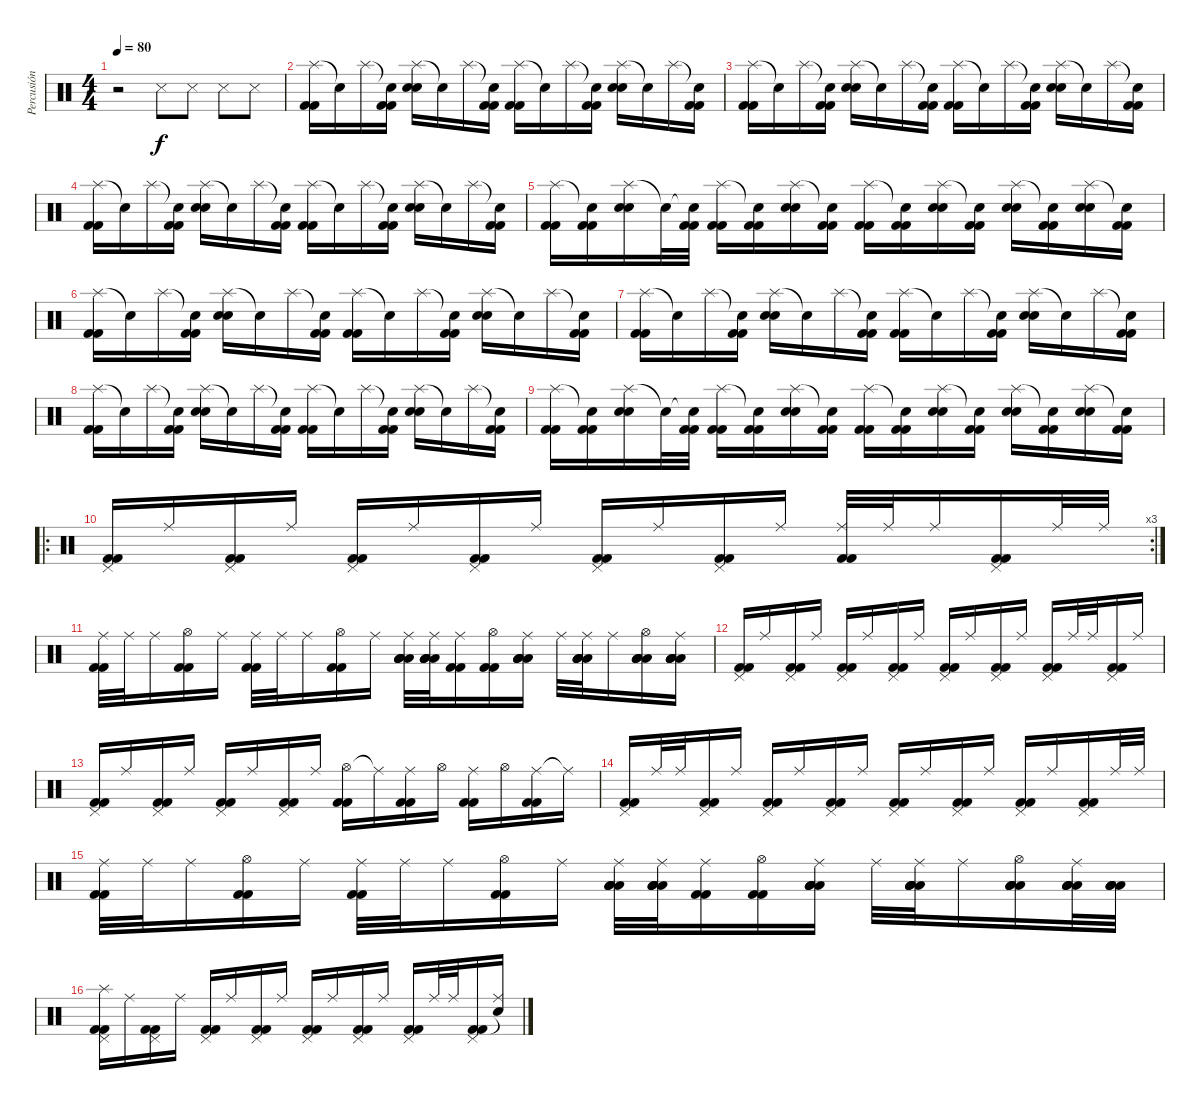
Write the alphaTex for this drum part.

\track ("Percusión" "Percusión") {instrument percussion}
\staff {score}
\articulation defaults
\ts (4 4)
\tempo 80
\clef neutral
\ks c
r.2{dy f} "Snare (side stick) 3".8 "Snare (side stick) 3".8 "Snare (side stick) 3".8 "Snare (side stick) 3".8 |
("Splash (hit)" "Kick (hit) 2" "Kick (hit) 2").16 "Snare (hit)"{t}.16 "Splash (hit)".16 ("Snare (hit)"{t} "Kick (hit) 2" "Kick (hit) 2").16 ("Splash (hit)" "Electric Snare (hit)" "Electric Snare (hit)").16 "Snare (hit)"{t}.16 "Splash (hit)".16 ("Snare (hit)"{t} "Kick (hit) 2" "Kick (hit) 2").16 ("Splash (hit)" "Kick (hit) 2" "Kick (hit) 2").16 "Snare (hit)"{t}.16 "Splash (hit)".16 ("Snare (hit)"{t} "Kick (hit) 2" "Kick (hit) 2").16 ("Splash (hit)" "Electric Snare (hit)" "Electric Snare (hit)").16 "Snare (hit)"{t}.16 "Splash (hit)".16 ("Snare (hit)"{t} "Kick (hit) 2" "Kick (hit) 2").16 |
("Splash (hit)" "Kick (hit) 2" "Kick (hit) 2").16 "Snare (hit)"{t}.16 "Splash (hit)".16 ("Snare (hit)"{t} "Kick (hit) 2" "Kick (hit) 2").16 ("Splash (hit)" "Electric Snare (hit)" "Electric Snare (hit)").16 "Snare (hit)"{t}.16 "Splash (hit)".16 ("Snare (hit)"{t} "Kick (hit) 2" "Kick (hit) 2").16 ("Splash (hit)" "Kick (hit) 2" "Kick (hit) 2").16 "Snare (hit)"{t}.16 "Splash (hit)".16 ("Snare (hit)"{t} "Kick (hit) 2" "Kick (hit) 2").16 ("Splash (hit)" "Electric Snare (hit)" "Electric Snare (hit)").16 "Snare (hit)"{t}.16 "Splash (hit)".16 ("Snare (hit)"{t} "Kick (hit) 2" "Kick (hit) 2").16 |
("Splash (hit)" "Kick (hit) 2" "Kick (hit) 2").16 "Snare (hit)"{t}.16 "Splash (hit)".16 ("Snare (hit)"{t} "Kick (hit) 2" "Kick (hit) 2").16 ("Splash (hit)" "Electric Snare (hit)" "Electric Snare (hit)").16 "Snare (hit)"{t}.16 "Splash (hit)".16 ("Snare (hit)"{t} "Kick (hit) 2" "Kick (hit) 2").16 ("Splash (hit)" "Kick (hit) 2" "Kick (hit) 2").16 "Snare (hit)"{t}.16 "Splash (hit)".16 ("Snare (hit)"{t} "Kick (hit) 2" "Kick (hit) 2").16 ("Splash (hit)" "Electric Snare (hit)" "Electric Snare (hit)").16 "Snare (hit)"{t}.16 "Splash (hit)".16 ("Snare (hit)"{t} "Kick (hit) 2" "Kick (hit) 2").16 |
("Splash (hit)" "Kick (hit) 2" "Kick (hit) 2").16 ("Snare (hit)"{t} "Kick (hit) 2" "Kick (hit) 2").16 ("Splash (hit)" "Electric Snare (hit)" "Electric Snare (hit)").16 "Snare (hit)"{t}.32 ("Snare (hit)"{t} "Kick (hit) 2" "Kick (hit) 2").32 ("Splash (hit)" "Kick (hit) 2" "Kick (hit) 2").16 ("Snare (hit)"{t} "Kick (hit) 2" "Kick (hit) 2").16 ("Splash (hit)" "Electric Snare (hit)" "Electric Snare (hit)").16 ("Snare (hit)"{t} "Kick (hit) 2" "Kick (hit) 2").16 ("Splash (hit)" "Kick (hit) 2" "Kick (hit) 2").16 ("Snare (hit)"{t} "Kick (hit) 2" "Kick (hit) 2").16 ("Splash (hit)" "Electric Snare (hit)" "Electric Snare (hit)").16 ("Snare (hit)"{t} "Kick (hit) 2" "Kick (hit) 2").16 ("Splash (hit)" "Electric Snare (hit)" "Electric Snare (hit)").16 ("Snare (hit)"{t} "Kick (hit) 2" "Kick (hit) 2").16 ("Splash (hit)" "Electric Snare (hit)" "Electric Snare (hit)").16 ("Snare (hit)"{t} "Kick (hit) 2" "Kick (hit) 2").16 |
("Splash (hit)" "Kick (hit) 2" "Kick (hit) 2").16 "Snare (hit)"{t}.16 "Splash (hit)".16 ("Snare (hit)"{t} "Kick (hit) 2" "Kick (hit) 2").16 ("Splash (hit)" "Electric Snare (hit)" "Electric Snare (hit)").16 "Snare (hit)"{t}.16 "Splash (hit)".16 ("Snare (hit)"{t} "Kick (hit) 2" "Kick (hit) 2").16 ("Splash (hit)" "Kick (hit) 2" "Kick (hit) 2").16 "Snare (hit)"{t}.16 "Splash (hit)".16 ("Snare (hit)"{t} "Kick (hit) 2" "Kick (hit) 2").16 ("Splash (hit)" "Electric Snare (hit)" "Electric Snare (hit)").16 "Snare (hit)"{t}.16 "Splash (hit)".16 ("Snare (hit)"{t} "Kick (hit) 2" "Kick (hit) 2").16 |
("Splash (hit)" "Kick (hit) 2" "Kick (hit) 2").16 "Snare (hit)"{t}.16 "Splash (hit)".16 ("Snare (hit)"{t} "Kick (hit) 2" "Kick (hit) 2").16 ("Splash (hit)" "Electric Snare (hit)" "Electric Snare (hit)").16 "Snare (hit)"{t}.16 "Splash (hit)".16 ("Snare (hit)"{t} "Kick (hit) 2" "Kick (hit) 2").16 ("Splash (hit)" "Kick (hit) 2" "Kick (hit) 2").16 "Snare (hit)"{t}.16 "Splash (hit)".16 ("Snare (hit)"{t} "Kick (hit) 2" "Kick (hit) 2").16 ("Splash (hit)" "Electric Snare (hit)" "Electric Snare (hit)").16 "Snare (hit)"{t}.16 "Splash (hit)".16 ("Snare (hit)"{t} "Kick (hit) 2" "Kick (hit) 2").16 |
("Splash (hit)" "Kick (hit) 2" "Kick (hit) 2").16 "Snare (hit)"{t}.16 "Splash (hit)".16 ("Snare (hit)"{t} "Kick (hit) 2" "Kick (hit) 2").16 ("Splash (hit)" "Electric Snare (hit)" "Electric Snare (hit)").16 "Snare (hit)"{t}.16 "Splash (hit)".16 ("Snare (hit)"{t} "Kick (hit) 2" "Kick (hit) 2").16 ("Splash (hit)" "Kick (hit) 2" "Kick (hit) 2").16 "Snare (hit)"{t}.16 "Splash (hit)".16 ("Snare (hit)"{t} "Kick (hit) 2" "Kick (hit) 2").16 ("Splash (hit)" "Electric Snare (hit)" "Electric Snare (hit)").16 "Snare (hit)"{t}.16 "Splash (hit)".16 ("Snare (hit)"{t} "Kick (hit) 2" "Kick (hit) 2").16 |
("Splash (hit)" "Kick (hit) 2" "Kick (hit) 2").16 ("Snare (hit)"{t} "Kick (hit) 2" "Kick (hit) 2").16 ("Splash (hit)" "Electric Snare (hit)" "Electric Snare (hit)").16 "Snare (hit)"{t}.32 ("Snare (hit)"{t} "Kick (hit) 2" "Kick (hit) 2").32 ("Splash (hit)" "Kick (hit) 2" "Kick (hit) 2").16 ("Snare (hit)"{t} "Kick (hit) 2" "Kick (hit) 2").16 ("Splash (hit)" "Electric Snare (hit)" "Electric Snare (hit)").16 ("Snare (hit)"{t} "Kick (hit) 2" "Kick (hit) 2").16 ("Splash (hit)" "Kick (hit) 2" "Kick (hit) 2").16 ("Snare (hit)"{t} "Kick (hit) 2" "Kick (hit) 2").16 ("Splash (hit)" "Electric Snare (hit)" "Electric Snare (hit)").16 ("Snare (hit)"{t} "Kick (hit) 2" "Kick (hit) 2").16 ("Splash (hit)" "Electric Snare (hit)" "Electric Snare (hit)").16 ("Snare (hit)"{t} "Kick (hit) 2" "Kick (hit) 2").16 ("Splash (hit)" "Electric Snare (hit)" "Electric Snare (hit)").16 ("Snare (hit)"{t} "Kick (hit) 2" "Kick (hit) 2").16 |
\ro
\rc 3
("Pedal Hi-Hat (hit)" "Kick (hit) 2" "Kick (hit) 2").16 "Ride (middle)".16 ("Pedal Hi-Hat (hit)" "Kick (hit) 2" "Kick (hit) 2").16 "Ride (middle)".16 ("Pedal Hi-Hat (hit)" "Kick (hit) 2" "Kick (hit) 2").16 "Ride (middle)".16 ("Pedal Hi-Hat (hit)" "Kick (hit) 2" "Kick (hit) 2").16 "Ride (middle)".16 ("Pedal Hi-Hat (hit)" "Kick (hit) 2" "Kick (hit) 2").16 "Ride (middle)".16 ("Pedal Hi-Hat (hit)" "Kick (hit) 2" "Kick (hit) 2").16 "Ride (middle)".16 ("Ride (middle)" "Kick (hit) 2" "Kick (hit) 2").32 "Ride (middle)".32 "Ride (middle)".16 ("Pedal Hi-Hat (hit)" "Kick (hit) 2" "Kick (hit) 2").16 "Ride (middle)".32 "Ride (middle)".32 |
("Ride (middle)" "Kick (hit) 2" "Kick (hit) 2").32 "Ride (middle)".32 "Ride (middle)".16 ("Hi-Hat (open)" "Kick (hit) 2" "Kick (hit) 2").16 "Ride (middle)".16 ("Ride (middle)" "Kick (hit) 2" "Kick (hit) 2").32 "Ride (middle)".32 "Ride (middle)".16 ("Hi-Hat (open)" "Kick (hit) 2" "Kick (hit) 2").16 "Ride (middle)".16 ("Ride (middle)" "Low Tom (hit)" "Low Tom (hit)" "Low Tom (hit)" "Low Tom (hit)").32 ("Ride (middle)" "Low Tom (hit)" "Low Tom (hit)" "Low Tom (hit)" "Low Tom (hit)").32 ("Ride (middle)" "Kick (hit) 2" "Kick (hit) 2").16 ("Hi-Hat (open)" "Kick (hit) 2" "Kick (hit) 2").16 ("Ride (middle)" "Low Tom (hit)" "Low Tom (hit)" "Low Tom (hit)" "Low Tom (hit)").16 "Ride (middle)".32 ("Ride (middle)" "Low Tom (hit)" "Low Tom (hit)" "Low Tom (hit)" "Low Tom (hit)").32 "Ride (middle)".16 ("Hi-Hat (open)" "Low Tom (hit)" "Low Tom (hit)" "Low Tom (hit)" "Low Tom (hit)").16 ("Ride (middle)" "Low Tom (hit)" "Low Tom (hit)" "Low Tom (hit)" "Low Tom (hit)").16 |
("Pedal Hi-Hat (hit)" "Kick (hit) 2" "Kick (hit) 2").16 "Ride (middle)".16 ("Pedal Hi-Hat (hit)" "Kick (hit) 2" "Kick (hit) 2").16 "Ride (middle)".16 ("Pedal Hi-Hat (hit)" "Kick (hit) 2" "Kick (hit) 2").16 "Ride (middle)".16 ("Pedal Hi-Hat (hit)" "Kick (hit) 2" "Kick (hit) 2").16 "Ride (middle)".16 ("Pedal Hi-Hat (hit)" "Kick (hit) 2" "Kick (hit) 2").16 "Ride (middle)".16 ("Pedal Hi-Hat (hit)" "Kick (hit) 2" "Kick (hit) 2").16 "Ride (middle)".16 ("Pedal Hi-Hat (hit)" "Kick (hit) 2" "Kick (hit) 2").16 "Ride (middle)".32 "Ride (middle)".32 ("Pedal Hi-Hat (hit)" "Kick (hit) 2" "Kick (hit) 2").16 "Ride (middle)".16 |
("Pedal Hi-Hat (hit)" "Kick (hit) 2" "Kick (hit) 2").16 "Ride (middle)".16 ("Pedal Hi-Hat (hit)" "Kick (hit) 2" "Kick (hit) 2").16 "Ride (middle)".16 ("Pedal Hi-Hat (hit)" "Kick (hit) 2" "Kick (hit) 2").16 "Ride (middle)".16 ("Pedal Hi-Hat (hit)" "Kick (hit) 2" "Kick (hit) 2").16 "Ride (middle)".16 ("Hi-Hat (open)" "Kick (hit) 2" "Kick (hit) 2").16 "Ride (middle)"{t}.16 ("Ride (middle)" "Kick (hit) 2" "Kick (hit) 2").16 "Hi-Hat (open)".16 ("Ride (middle)" "Kick (hit) 2" "Kick (hit) 2").16 "Hi-Hat (open)".16 ("Ride (middle)" "Kick (hit) 2" "Kick (hit) 2").16 "Ride (middle)"{t}.16 |
("Pedal Hi-Hat (hit)" "Kick (hit) 2" "Kick (hit) 2").16 "Ride (middle)".32 "Ride (middle)".32 ("Pedal Hi-Hat (hit)" "Kick (hit) 2" "Kick (hit) 2").16 "Ride (middle)".16 ("Pedal Hi-Hat (hit)" "Kick (hit) 2" "Kick (hit) 2").16 "Ride (middle)".16 ("Pedal Hi-Hat (hit)" "Kick (hit) 2" "Kick (hit) 2").16 "Ride (middle)".16 ("Pedal Hi-Hat (hit)" "Kick (hit) 2" "Kick (hit) 2").16 "Ride (middle)".16 ("Pedal Hi-Hat (hit)" "Kick (hit) 2" "Kick (hit) 2").16 "Ride (middle)".16 ("Pedal Hi-Hat (hit)" "Kick (hit) 2" "Kick (hit) 2").16 "Ride (middle)".16 ("Pedal Hi-Hat (hit)" "Kick (hit) 2" "Kick (hit) 2").16 "Ride (middle)".32 "Ride (middle)".32 |
("Ride (middle)" "Kick (hit) 2" "Kick (hit) 2").32 "Ride (middle)".32 "Ride (middle)".16 ("Hi-Hat (open)" "Kick (hit) 2" "Kick (hit) 2").16 "Ride (middle)".16 ("Ride (middle)" "Kick (hit) 2" "Kick (hit) 2").32 "Ride (middle)".32 "Ride (middle)".16 ("Hi-Hat (open)" "Kick (hit) 2" "Kick (hit) 2").16 "Ride (middle)".16 ("Ride (middle)" "Low Tom (hit)" "Low Tom (hit)" "Low Tom (hit)" "Low Tom (hit)").32 ("Ride (middle)" "Low Tom (hit)" "Low Tom (hit)" "Low Tom (hit)" "Low Tom (hit)").32 ("Ride (middle)" "Kick (hit) 2" "Kick (hit) 2").16 ("Hi-Hat (open)" "Kick (hit) 2" "Kick (hit) 2").16 ("Ride (middle)" "Low Tom (hit)" "Low Tom (hit)" "Low Tom (hit)" "Low Tom (hit)").16 "Ride (middle)".32 ("Ride (middle)" "Low Tom (hit)" "Low Tom (hit)" "Low Tom (hit)" "Low Tom (hit)").32 "Ride (middle)".16 ("Hi-Hat (open)" "Low Tom (hit)" "Low Tom (hit)" "Low Tom (hit)" "Low Tom (hit)").16 ("Ride (middle)" "Low Tom (hit)" "Low Tom (hit)" "Low Tom (hit)" "Low Tom (hit)").32 ("Low Tom (hit)" "Low Tom (hit)" "Low Tom (hit)" "Low Tom (hit)").32 |
("Pedal Hi-Hat (hit)" "Splash (hit)" "Kick (hit) 2" "Kick (hit) 2").16 "Ride (middle)".16 ("Pedal Hi-Hat (hit)" "Kick (hit) 2" "Kick (hit) 2").16 "Ride (middle)".16 ("Pedal Hi-Hat (hit)" "Kick (hit) 2" "Kick (hit) 2").16 "Ride (middle)".16 ("Pedal Hi-Hat (hit)" "Kick (hit) 2" "Kick (hit) 2").16 "Ride (middle)".16 ("Pedal Hi-Hat (hit)" "Kick (hit) 2" "Kick (hit) 2").16 "Ride (middle)".16 ("Pedal Hi-Hat (hit)" "Kick (hit) 2" "Kick (hit) 2").16 "Ride (middle)".16 ("Pedal Hi-Hat (hit)" "Kick (hit) 2" "Kick (hit) 2").16 "Ride (middle)".32 "Ride (middle)".32 ("Pedal Hi-Hat (hit)" "Kick (hit) 2" "Kick (hit) 2").16 ("Ride (middle)" "Snare (hit)"{t}).16
